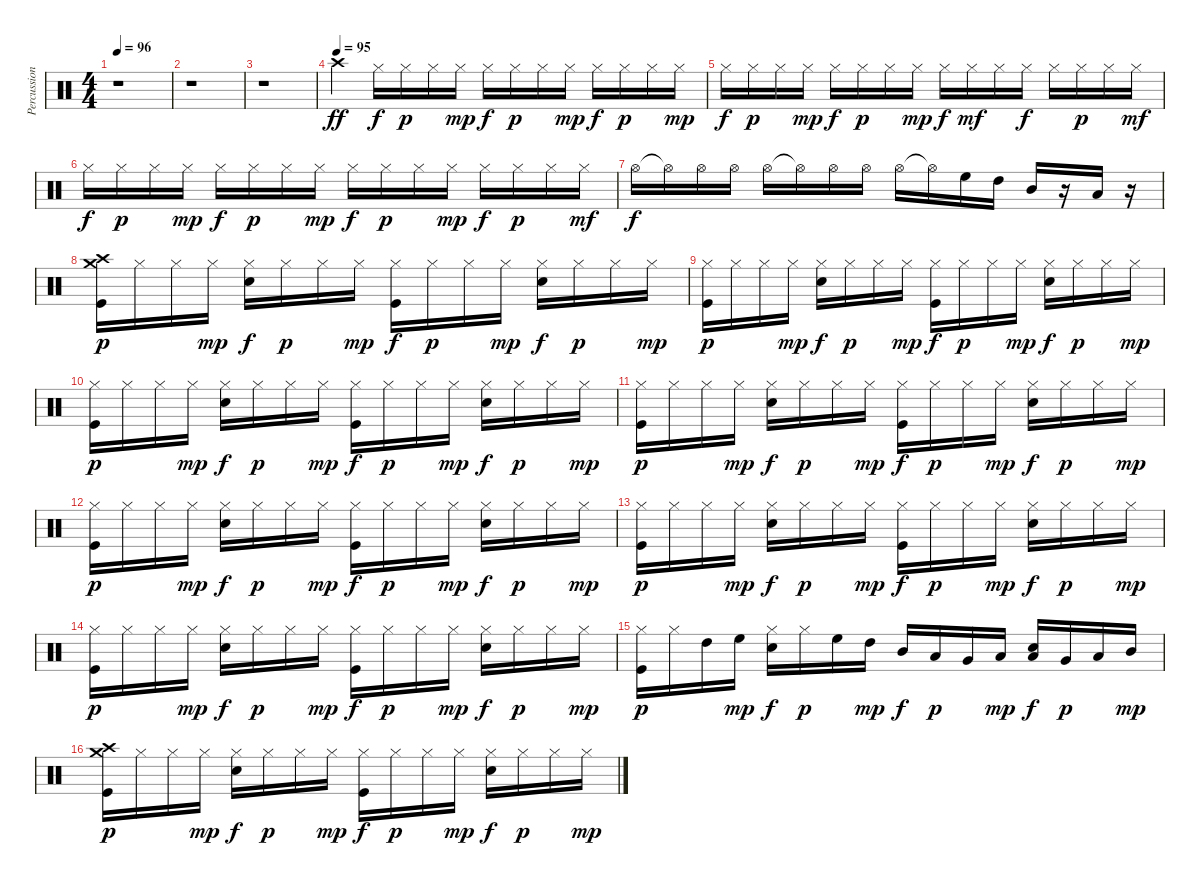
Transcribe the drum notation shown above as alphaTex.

\track ("Percussion" "Percussion") {instrument percussion}
\staff {score}
\articulation defaults
\ts (4 4)
\tempo 96
\clef neutral
\ks c
r.1{dy ff} |
r.1 |
r.1 |
\tempo (95)
"Crash high (hit)".4 "Hi-Hat (closed)".16{dy f} "Hi-Hat (closed)".16{dy p} "Hi-Hat (closed)".16 "Hi-Hat (closed)".16{dy mp} "Hi-Hat (closed)".16{dy f} "Hi-Hat (closed)".16{dy p} "Hi-Hat (closed)".16 "Hi-Hat (closed)".16{dy mp} "Hi-Hat (closed)".16{dy f} "Hi-Hat (closed)".16{dy p} "Hi-Hat (closed)".16 "Hi-Hat (closed)".16{dy mp} |
"Hi-Hat (closed)".16{dy f} "Hi-Hat (closed)".16{dy p} "Hi-Hat (closed)".16 "Hi-Hat (closed)".16{dy mp} "Hi-Hat (closed)".16{dy f} "Hi-Hat (closed)".16{dy p} "Hi-Hat (closed)".16 "Hi-Hat (closed)".16{dy mp} "Hi-Hat (closed)".16{dy f} "Hi-Hat (closed)".16{dy mf} "Hi-Hat (closed)".16 "Hi-Hat (closed)".16{dy f} "Hi-Hat (closed)".16 "Hi-Hat (closed)".16{dy p} "Hi-Hat (closed)".16 "Hi-Hat (closed)".16{dy mf} |
"Hi-Hat (closed)".16{dy f} "Hi-Hat (closed)".16{dy p} "Hi-Hat (closed)".16 "Hi-Hat (closed)".16{dy mp} "Hi-Hat (closed)".16{dy f} "Hi-Hat (closed)".16{dy p} "Hi-Hat (closed)".16 "Hi-Hat (closed)".16{dy mp} "Hi-Hat (closed)".16{dy f} "Hi-Hat (closed)".16{dy p} "Hi-Hat (closed)".16 "Hi-Hat (closed)".16{dy mp} "Hi-Hat (closed)".16{dy f} "Hi-Hat (closed)".16{dy p} "Hi-Hat (closed)".16 "Hi-Hat (closed)".16{dy mf} |
"Hi-Hat (open)".16{dy f} "Hi-Hat (open)"{t}.16 "Hi-Hat (open)".16 "Hi-Hat (open)".16 "Hi-Hat (open)".16 "Hi-Hat (open)"{t}.16 "Hi-Hat (open)".16 "Hi-Hat (open)".16 "Hi-Hat (open)".16 "Hi-Hat (open)"{t}.16 "High Floor Tom (hit)".16 "High Tom (hit)".16 "Mid Tom (hit)".16 r.16 "Low Tom (hit)".16 r.16 |
("Crash medium (hit)" "Crash high (hit)" "Kick (hit)").16{dy p} "Hi-Hat (closed)".16 "Hi-Hat (closed)".16 "Hi-Hat (closed)".16{dy mp} ("Hi-Hat (closed)" "Snare (hit) 2").16{dy f} "Hi-Hat (closed)".16{dy p} "Hi-Hat (closed)".16 "Hi-Hat (closed)".16{dy mp} ("Hi-Hat (closed)" "Kick (hit)").16{dy f} "Hi-Hat (closed)".16{dy p} "Hi-Hat (closed)".16 "Hi-Hat (closed)".16{dy mp} ("Hi-Hat (closed)" "Snare (hit) 2").16{dy f} "Hi-Hat (closed)".16{dy p} "Hi-Hat (closed)".16 "Hi-Hat (closed)".16{dy mp} |
("Hi-Hat (closed)" "Kick (hit)").16{dy p} "Hi-Hat (closed)".16 "Hi-Hat (closed)".16 "Hi-Hat (closed)".16{dy mp} ("Hi-Hat (closed)" "Snare (hit) 2").16{dy f} "Hi-Hat (closed)".16{dy p} "Hi-Hat (closed)".16 "Hi-Hat (closed)".16{dy mp} ("Hi-Hat (closed)" "Kick (hit)").16{dy f} "Hi-Hat (closed)".16{dy p} "Hi-Hat (closed)".16 "Hi-Hat (closed)".16{dy mp} ("Hi-Hat (closed)" "Snare (hit) 2").16{dy f} "Hi-Hat (closed)".16{dy p} "Hi-Hat (closed)".16 "Hi-Hat (closed)".16{dy mp} |
("Hi-Hat (closed)" "Kick (hit)").16{dy p} "Hi-Hat (closed)".16 "Hi-Hat (closed)".16 "Hi-Hat (closed)".16{dy mp} ("Hi-Hat (closed)" "Snare (hit) 2").16{dy f} "Hi-Hat (closed)".16{dy p} "Hi-Hat (closed)".16 "Hi-Hat (closed)".16{dy mp} ("Hi-Hat (closed)" "Kick (hit)").16{dy f} "Hi-Hat (closed)".16{dy p} "Hi-Hat (closed)".16 "Hi-Hat (closed)".16{dy mp} ("Hi-Hat (closed)" "Snare (hit) 2").16{dy f} "Hi-Hat (closed)".16{dy p} "Hi-Hat (closed)".16 "Hi-Hat (closed)".16{dy mp} |
("Hi-Hat (closed)" "Kick (hit)").16{dy p} "Hi-Hat (closed)".16 "Hi-Hat (closed)".16 "Hi-Hat (closed)".16{dy mp} ("Hi-Hat (closed)" "Snare (hit) 2").16{dy f} "Hi-Hat (closed)".16{dy p} "Hi-Hat (closed)".16 "Hi-Hat (closed)".16{dy mp} ("Hi-Hat (closed)" "Kick (hit)").16{dy f} "Hi-Hat (closed)".16{dy p} "Hi-Hat (closed)".16 "Hi-Hat (closed)".16{dy mp} ("Hi-Hat (closed)" "Snare (hit) 2").16{dy f} "Hi-Hat (closed)".16{dy p} "Hi-Hat (closed)".16 "Hi-Hat (closed)".16{dy mp} |
("Hi-Hat (closed)" "Kick (hit)").16{dy p} "Hi-Hat (closed)".16 "Hi-Hat (closed)".16 "Hi-Hat (closed)".16{dy mp} ("Hi-Hat (closed)" "Snare (hit) 2").16{dy f} "Hi-Hat (closed)".16{dy p} "Hi-Hat (closed)".16 "Hi-Hat (closed)".16{dy mp} ("Hi-Hat (closed)" "Kick (hit)").16{dy f} "Hi-Hat (closed)".16{dy p} "Hi-Hat (closed)".16 "Hi-Hat (closed)".16{dy mp} ("Hi-Hat (closed)" "Snare (hit) 2").16{dy f} "Hi-Hat (closed)".16{dy p} "Hi-Hat (closed)".16 "Hi-Hat (closed)".16{dy mp} |
("Hi-Hat (closed)" "Kick (hit)").16{dy p} "Hi-Hat (closed)".16 "Hi-Hat (closed)".16 "Hi-Hat (closed)".16{dy mp} ("Hi-Hat (closed)" "Snare (hit) 2").16{dy f} "Hi-Hat (closed)".16{dy p} "Hi-Hat (closed)".16 "Hi-Hat (closed)".16{dy mp} ("Hi-Hat (closed)" "Kick (hit)").16{dy f} "Hi-Hat (closed)".16{dy p} "Hi-Hat (closed)".16 "Hi-Hat (closed)".16{dy mp} ("Hi-Hat (closed)" "Snare (hit) 2").16{dy f} "Hi-Hat (closed)".16{dy p} "Hi-Hat (closed)".16 "Hi-Hat (closed)".16{dy mp} |
("Hi-Hat (closed)" "Kick (hit)").16{dy p} "Hi-Hat (closed)".16 "Hi-Hat (closed)".16 "Hi-Hat (closed)".16{dy mp} ("Hi-Hat (closed)" "Snare (hit) 2").16{dy f} "Hi-Hat (closed)".16{dy p} "Hi-Hat (closed)".16 "Hi-Hat (closed)".16{dy mp} ("Hi-Hat (closed)" "Kick (hit)").16{dy f} "Hi-Hat (closed)".16{dy p} "Hi-Hat (closed)".16 "Hi-Hat (closed)".16{dy mp} ("Hi-Hat (closed)" "Snare (hit) 2").16{dy f} "Hi-Hat (closed)".16{dy p} "Hi-Hat (closed)".16 "Hi-Hat (closed)".16{dy mp} |
("Hi-Hat (closed)" "Kick (hit)").16{dy p} "Hi-Hat (closed)".16 "High Tom (hit)".16 "High Floor Tom (hit)".16{dy mp} ("Hi-Hat (closed)" "Snare (hit) 2").16{dy f} "Hi-Hat (closed)".16{dy p} "High Floor Tom (hit)".16 "High Tom (hit)".16{dy mp} "Mid Tom (hit)".16{dy f} "Low Tom (hit)".16{dy p} "Very Low Tom (hit)".16 "Low Floor Tom (hit)".16{dy mp} ("Low Floor Tom (hit)" "Snare (hit) 2").16{dy f} "Very Low Tom (hit)".16{dy p} "Low Tom (hit)".16 "Mid Tom (hit)".16{dy mp} |
("Crash medium (hit)" "Crash high (hit)" "Kick (hit)").16{dy p} "Hi-Hat (closed)".16 "Hi-Hat (closed)".16 "Hi-Hat (closed)".16{dy mp} ("Hi-Hat (closed)" "Snare (hit) 2").16{dy f} "Hi-Hat (closed)".16{dy p} "Hi-Hat (closed)".16 "Hi-Hat (closed)".16{dy mp} ("Hi-Hat (closed)" "Kick (hit)").16{dy f} "Hi-Hat (closed)".16{dy p} "Hi-Hat (closed)".16 "Hi-Hat (closed)".16{dy mp} ("Hi-Hat (closed)" "Snare (hit) 2").16{dy f} "Hi-Hat (closed)".16{dy p} "Hi-Hat (closed)".16 "Hi-Hat (closed)".16{dy mp}
